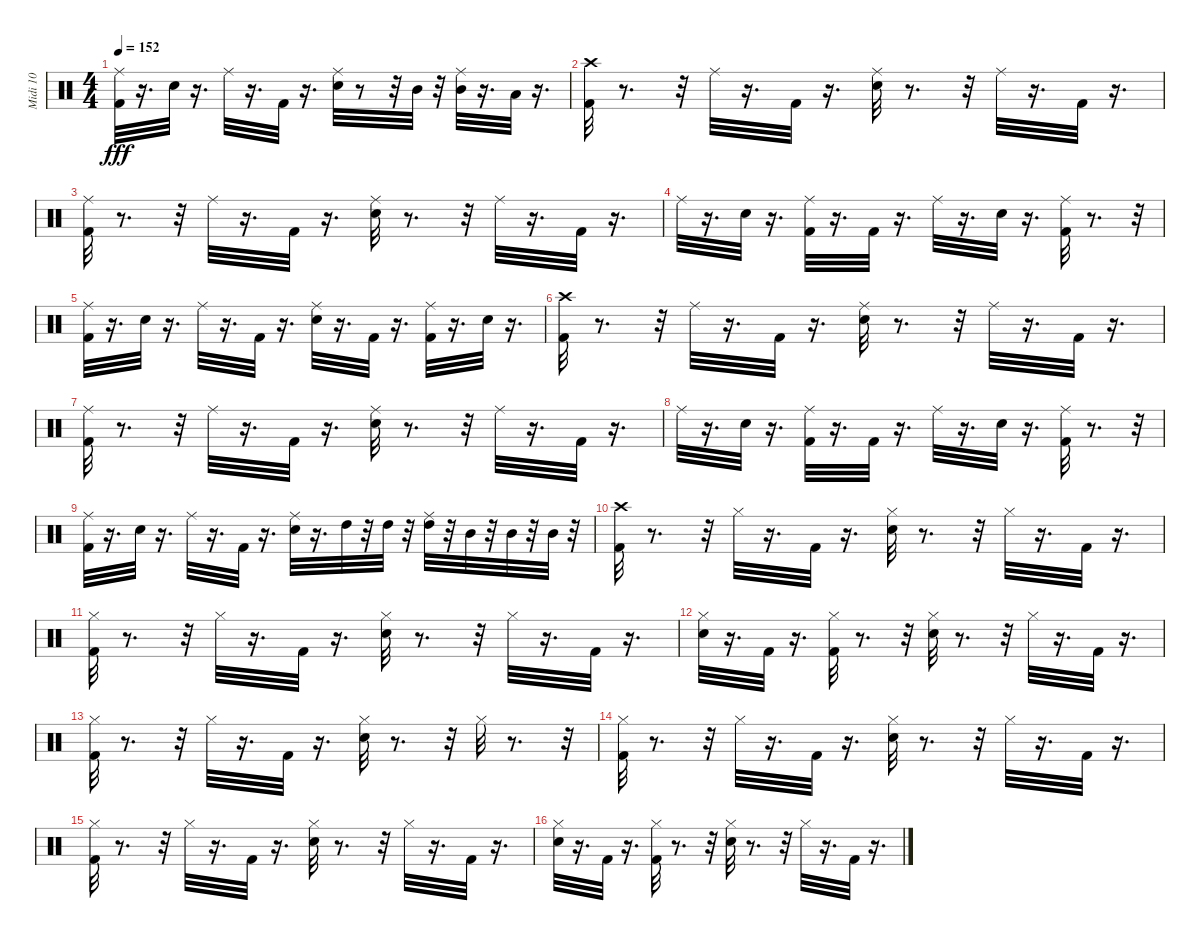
\track ("Midi 10" "Midi 10") {instrument percussion}
\staff {score}
\articulation defaults
\ts (4 4)
\tempo 152
\clef neutral
\ks c
("Kick (hit) 2" "Ride (middle)").32{dy fff} r.16{d} "Electric Snare (hit)".32 r.16{d} "Ride (middle)".32 r.16{d} "Kick (hit) 2".32 r.16{d} ("Electric Snare (hit)" "Ride (middle)").32 r.8 r.32 "Mid Tom (hit)".32 r.32 ("Mid Tom (hit)" "Ride (middle)").32 r.16{d} "Low Tom (hit)".32 r.16{d} |
("Kick (hit) 2" "Crash high (hit)").32 r.8{d} r.32 "Ride (middle)".32 r.16{d} "Kick (hit) 2".32 r.16{d} ("Ride (middle)" "Electric Snare (hit)").32 r.8{d} r.32 "Ride (middle)".32 r.16{d} "Kick (hit) 2".32 r.16{d} |
("Kick (hit) 2" "Ride (middle)").32 r.8{d} r.32 "Ride (middle)".32 r.16{d} "Kick (hit) 2".32 r.16{d} ("Electric Snare (hit)" "Ride (middle)").32 r.8{d} r.32 "Ride (middle)".32 r.16{d} "Kick (hit) 2".32 r.16{d} |
"Ride (middle)".32 r.16{d} "Electric Snare (hit)".32 r.16{d} ("Kick (hit) 2" "Ride (middle)").32 r.16{d} "Kick (hit) 2".32 r.16{d} "Ride (middle)".32 r.16{d} "Electric Snare (hit)".32 r.16{d} ("Kick (hit) 2" "Ride (middle)").32 r.8{d} r.32 |
("Kick (hit) 2" "Ride (middle)").32 r.16{d} "Electric Snare (hit)".32 r.16{d} "Ride (middle)".32 r.16{d} "Kick (hit) 2".32 r.16{d} ("Electric Snare (hit)" "Ride (middle)").32 r.16{d} "Kick (hit) 2".32 r.16{d} ("Kick (hit) 2" "Ride (middle)").32 r.16{d} "Electric Snare (hit)".32 r.16{d} |
("Crash high (hit)" "Kick (hit) 2").32 r.8{d} r.32 "Ride (middle)".32 r.16{d} "Kick (hit) 2".32 r.16{d} ("Electric Snare (hit)" "Ride (middle)").32 r.8{d} r.32 "Ride (middle)".32 r.16{d} "Kick (hit) 2".32 r.16{d} |
("Ride (middle)" "Kick (hit) 2").32 r.8{d} r.32 "Ride (middle)".32 r.16{d} "Kick (hit) 2".32 r.16{d} ("Ride (middle)" "Electric Snare (hit)").32 r.8{d} r.32 "Ride (middle)".32 r.16{d} "Kick (hit) 2".32 r.16{d} |
"Ride (middle)".32 r.16{d} "Electric Snare (hit)".32 r.16{d} ("Ride (middle)" "Kick (hit) 2").32 r.16{d} "Kick (hit) 2".32 r.16{d} "Ride (middle)".32 r.16{d} "Electric Snare (hit)".32 r.16{d} ("Ride (middle)" "Kick (hit) 2").32 r.8{d} r.32 |
("Ride (middle)" "Kick (hit) 2").32 r.16{d} "Electric Snare (hit)".32 r.16{d} "Ride (middle)".32 r.16{d} "Kick (hit) 2".32 r.16{d} ("Ride (middle)" "Electric Snare (hit)").32 r.16{d} "High Tom (hit)".32 r.32 "High Tom (hit)".32 r.32 ("High Tom (hit)" "Ride (middle)").32 r.32 "Mid Tom (hit)".32 r.32 "Mid Tom (hit)".32 r.32 "Mid Tom (hit)".32 r.32 |
("Kick (hit) 2" "Crash high (hit)").32 r.8{d} r.32 "Hi-Hat (closed)".32 r.16{d} "Kick (hit) 2".32 r.16{d} ("Electric Snare (hit)" "Hi-Hat (closed)").32 r.8{d} r.32 "Hi-Hat (closed)".32 r.16{d} "Kick (hit) 2".32 r.16{d} |
("Kick (hit) 2" "Hi-Hat (closed)").32 r.8{d} r.32 "Hi-Hat (closed)".32 r.16{d} "Kick (hit) 2".32 r.16{d} ("Electric Snare (hit)" "Hi-Hat (closed)").32 r.8{d} r.32 "Hi-Hat (closed)".32 r.16{d} "Kick (hit) 2".32 r.16{d} |
("Electric Snare (hit)" "Hi-Hat (closed)").32 r.16{d} "Kick (hit) 2".32 r.16{d} ("Kick (hit) 2" "Hi-Hat (closed)").32 r.8{d} r.32 ("Electric Snare (hit)" "Hi-Hat (closed)").32 r.8{d} r.32 "Hi-Hat (closed)".32 r.16{d} "Kick (hit) 2".32 r.16{d} |
("Kick (hit) 2" "Hi-Hat (closed)").32 r.8{d} r.32 "Hi-Hat (closed)".32 r.16{d} "Kick (hit) 2".32 r.16{d} ("Electric Snare (hit)" "Hi-Hat (closed)").32 r.8{d} r.32 "Hi-Hat (closed)".32 r.8{d} r.32 |
("Kick (hit) 2" "Hi-Hat (closed)").32 r.8{d} r.32 "Hi-Hat (closed)".32 r.16{d} "Kick (hit) 2".32 r.16{d} ("Electric Snare (hit)" "Hi-Hat (closed)").32 r.8{d} r.32 "Hi-Hat (closed)".32 r.16{d} "Kick (hit) 2".32 r.16{d} |
("Kick (hit) 2" "Hi-Hat (closed)").32 r.8{d} r.32 "Hi-Hat (closed)".32 r.16{d} "Kick (hit) 2".32 r.16{d} ("Electric Snare (hit)" "Hi-Hat (closed)").32 r.8{d} r.32 "Hi-Hat (closed)".32 r.16{d} "Kick (hit) 2".32 r.16{d} |
("Electric Snare (hit)" "Hi-Hat (closed)").32 r.16{d} "Kick (hit) 2".32 r.16{d} ("Kick (hit) 2" "Hi-Hat (closed)").32 r.8{d} r.32 ("Electric Snare (hit)" "Hi-Hat (closed)").32 r.8{d} r.32 "Hi-Hat (closed)".32 r.16{d} "Kick (hit) 2".32 r.16{d}
